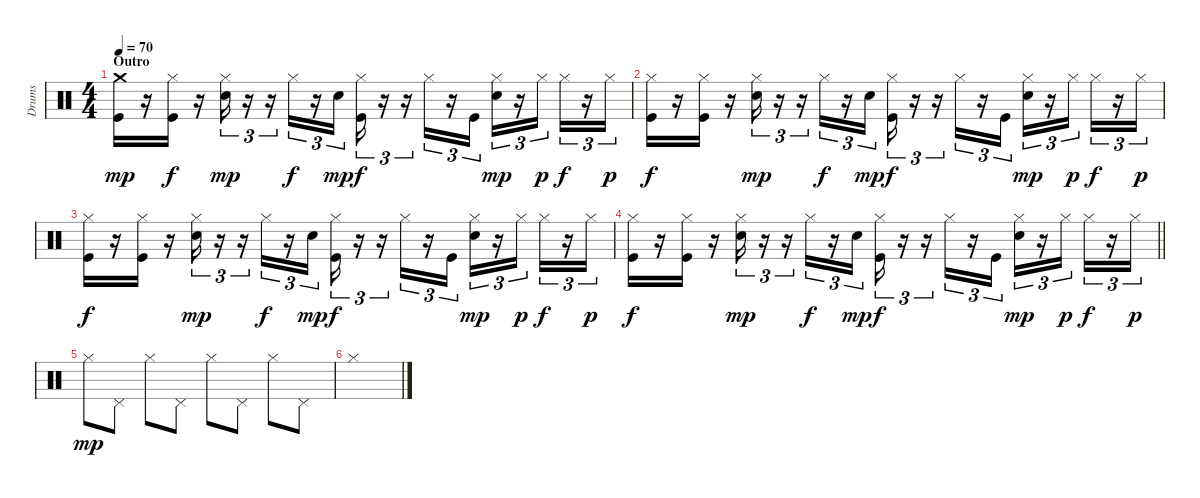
\track ("Drums" "Drums") {instrument percussion}
\staff {score}
\articulation defaults
\ts (4 4)
\section ("" "Outro")
\tempo 70
\clef neutral
\ks c
("Kick (hit)" "Crash medium (hit)").16{dy mp} r.16 ("Kick (hit)" "Hi-Hat (closed)").16{dy f} r.16 ("Electric Snare (hit)" "Hi-Hat (closed)").16{tu (3 2) dy mp} r.16{tu (3 2)} r.16{tu (3 2)} "Hi-Hat (closed)".16{tu (3 2) dy f} r.16{tu (3 2)} "Electric Snare (hit)".16{tu (3 2) dy mp} ("Kick (hit)" "Hi-Hat (closed)").16{tu (3 2) dy f} r.16{tu (3 2)} r.16{tu (3 2)} "Hi-Hat (closed)".16{tu (3 2)} r.16{tu (3 2)} "Kick (hit)".16{tu (3 2)} ("Electric Snare (hit)" "Hi-Hat (closed)").16{tu (3 2) dy mp} r.16{tu (3 2)} "Hi-Hat (closed)".16{tu (3 2) dy p} "Hi-Hat (closed)".16{tu (3 2) dy f} r.16{tu (3 2)} "Hi-Hat (closed)".16{tu (3 2) dy p} |
("Kick (hit)" "Hi-Hat (closed)").16{dy f} r.16 ("Kick (hit)" "Hi-Hat (closed)").16 r.16 ("Electric Snare (hit)" "Hi-Hat (closed)").16{tu (3 2) dy mp} r.16{tu (3 2)} r.16{tu (3 2)} "Hi-Hat (closed)".16{tu (3 2) dy f} r.16{tu (3 2)} "Electric Snare (hit)".16{tu (3 2) dy mp} ("Kick (hit)" "Hi-Hat (closed)").16{tu (3 2) dy f} r.16{tu (3 2)} r.16{tu (3 2)} "Hi-Hat (closed)".16{tu (3 2)} r.16{tu (3 2)} "Kick (hit)".16{tu (3 2)} ("Electric Snare (hit)" "Hi-Hat (closed)").16{tu (3 2) dy mp} r.16{tu (3 2)} "Hi-Hat (closed)".16{tu (3 2) dy p} "Hi-Hat (closed)".16{tu (3 2) dy f} r.16{tu (3 2)} "Hi-Hat (closed)".16{tu (3 2) dy p} |
("Kick (hit)" "Hi-Hat (closed)").16{dy f} r.16 ("Kick (hit)" "Hi-Hat (closed)").16 r.16 ("Electric Snare (hit)" "Hi-Hat (closed)").16{tu (3 2) dy mp} r.16{tu (3 2)} r.16{tu (3 2)} "Hi-Hat (closed)".16{tu (3 2) dy f} r.16{tu (3 2)} "Electric Snare (hit)".16{tu (3 2) dy mp} ("Kick (hit)" "Hi-Hat (closed)").16{tu (3 2) dy f} r.16{tu (3 2)} r.16{tu (3 2)} "Hi-Hat (closed)".16{tu (3 2)} r.16{tu (3 2)} "Kick (hit)".16{tu (3 2)} ("Electric Snare (hit)" "Hi-Hat (closed)").16{tu (3 2) dy mp} r.16{tu (3 2)} "Hi-Hat (closed)".16{tu (3 2) dy p} "Hi-Hat (closed)".16{tu (3 2) dy f} r.16{tu (3 2)} "Hi-Hat (closed)".16{tu (3 2) dy p} |
\barLineRight lightlight
("Kick (hit)" "Hi-Hat (closed)").16{dy f} r.16 ("Kick (hit)" "Hi-Hat (closed)").16 r.16 ("Electric Snare (hit)" "Hi-Hat (closed)").16{tu (3 2) dy mp} r.16{tu (3 2)} r.16{tu (3 2)} "Hi-Hat (closed)".16{tu (3 2) dy f} r.16{tu (3 2)} "Electric Snare (hit)".16{tu (3 2) dy mp} ("Kick (hit)" "Hi-Hat (closed)").16{tu (3 2) dy f} r.16{tu (3 2)} r.16{tu (3 2)} "Hi-Hat (closed)".16{tu (3 2)} r.16{tu (3 2)} "Kick (hit)".16{tu (3 2)} ("Electric Snare (hit)" "Hi-Hat (closed)").16{tu (3 2) dy mp} r.16{tu (3 2)} "Hi-Hat (closed)".16{tu (3 2) dy p} "Hi-Hat (closed)".16{tu (3 2) dy f} r.16{tu (3 2)} "Hi-Hat (closed)".16{tu (3 2) dy p} |
"Hi-Hat (closed)".8{dy mp} "Pedal Hi-Hat (hit)".8 "Hi-Hat (closed)".8 "Pedal Hi-Hat (hit)".8 "Hi-Hat (closed)".8 "Pedal Hi-Hat (hit)".8 "Hi-Hat (closed)".8 "Pedal Hi-Hat (hit)".8 |
"Hi-Hat (closed)".1
